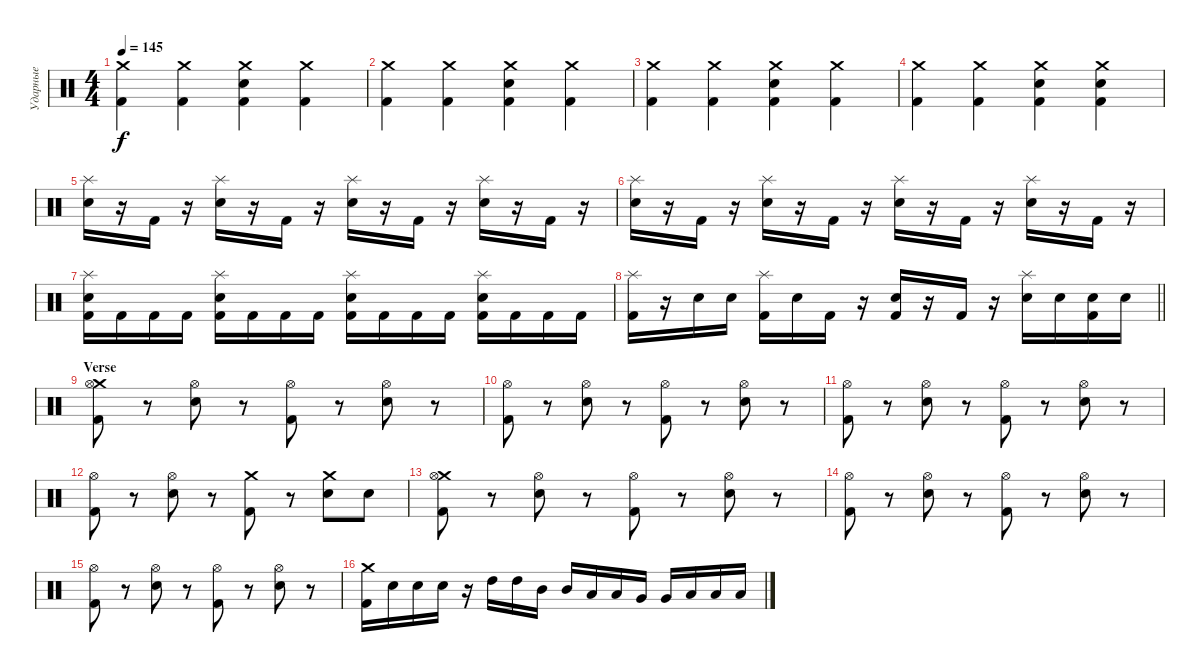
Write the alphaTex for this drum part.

\track ("Ударные" "Ударные") {instrument percussion}
\staff {score}
\articulation defaults
\ts (4 4)
\tempo 145
\clef neutral
\ks c
("Crash medium (hit)" "Kick (hit) 2").4{dy f} ("Crash medium (hit)" "Kick (hit) 2").4 ("Crash medium (hit)" "Electric Snare (hit)" "Kick (hit) 2").4 ("Crash medium (hit)" "Kick (hit) 2").4 |
("Crash medium (hit)" "Kick (hit) 2").4 ("Crash medium (hit)" "Kick (hit) 2").4 ("Crash medium (hit)" "Electric Snare (hit)" "Kick (hit) 2").4 ("Crash medium (hit)" "Kick (hit) 2").4 |
("Crash medium (hit)" "Kick (hit) 2").4 ("Crash medium (hit)" "Kick (hit) 2").4 ("Crash medium (hit)" "Electric Snare (hit)" "Kick (hit) 2").4 ("Crash medium (hit)" "Kick (hit) 2").4 |
("Crash medium (hit)" "Kick (hit) 2").4 ("Crash medium (hit)" "Kick (hit) 2").4 ("Crash medium (hit)" "Electric Snare (hit)" "Kick (hit) 2").4 ("Crash medium (hit)" "Electric Snare (hit)" "Kick (hit) 2").4 |
("Splash (hit)" "Electric Snare (hit)").16 r.16 "Kick (hit) 2".16 r.16 ("Splash (hit)" "Electric Snare (hit)").16 r.16 "Kick (hit) 2".16 r.16 ("Splash (hit)" "Electric Snare (hit)").16 r.16 "Kick (hit) 2".16 r.16 ("Splash (hit)" "Electric Snare (hit)").16 r.16 "Kick (hit) 2".16 r.16 |
("Splash (hit)" "Electric Snare (hit)").16 r.16 "Kick (hit) 2".16 r.16 ("Splash (hit)" "Electric Snare (hit)").16 r.16 "Kick (hit) 2".16 r.16 ("Splash (hit)" "Electric Snare (hit)").16 r.16 "Kick (hit) 2".16 r.16 ("Splash (hit)" "Electric Snare (hit)").16 r.16 "Kick (hit) 2".16 r.16 |
("Splash (hit)" "Electric Snare (hit)" "Kick (hit) 2").16 "Kick (hit) 2".16 "Kick (hit) 2".16 "Kick (hit) 2".16 ("Splash (hit)" "Electric Snare (hit)" "Kick (hit) 2").16 "Kick (hit) 2".16 "Kick (hit) 2".16 "Kick (hit) 2".16 ("Splash (hit)" "Electric Snare (hit)" "Kick (hit) 2").16 "Kick (hit) 2".16 "Kick (hit) 2".16 "Kick (hit) 2".16 ("Splash (hit)" "Electric Snare (hit)" "Kick (hit) 2").16 "Kick (hit) 2".16 "Kick (hit) 2".16 "Kick (hit) 2".16 |
\barLineRight lightlight
("Splash (hit)" "Kick (hit) 2").16 r.16 "Electric Snare (hit)".16 "Electric Snare (hit)".16 ("Splash (hit)" "Kick (hit) 2").16 "Electric Snare (hit)".16 "Kick (hit) 2".16 r.16 ("Electric Snare (hit)" "Kick (hit) 2").16 r.16 "Kick (hit) 2".16 r.16 ("Splash (hit)" "Electric Snare (hit)").16 "Electric Snare (hit)".16 ("Electric Snare (hit)" "Kick (hit) 2").16 "Electric Snare (hit)".16 |
\section ("" "Verse")
("Crash medium (hit)" "Hi-Hat (open)" "Kick (hit) 2").8 r.8 ("Hi-Hat (open)" "Electric Snare (hit)").8 r.8 ("Hi-Hat (open)" "Kick (hit) 2").8 r.8 ("Hi-Hat (open)" "Electric Snare (hit)").8 r.8 |
("Hi-Hat (open)" "Kick (hit) 2").8 r.8 ("Hi-Hat (open)" "Electric Snare (hit)").8 r.8 ("Hi-Hat (open)" "Kick (hit) 2").8 r.8 ("Hi-Hat (open)" "Electric Snare (hit)").8 r.8 |
("Hi-Hat (open)" "Kick (hit) 2").8 r.8 ("Hi-Hat (open)" "Electric Snare (hit)").8 r.8 ("Hi-Hat (open)" "Kick (hit) 2").8 r.8 ("Hi-Hat (open)" "Electric Snare (hit)").8 r.8 |
("Hi-Hat (open)" "Kick (hit) 2").8 r.8 ("Hi-Hat (open)" "Electric Snare (hit)").8 r.8 ("Crash medium (hit)" "Kick (hit) 2").8 r.8 ("Crash medium (hit)" "Electric Snare (hit)").8 "Electric Snare (hit)".8 |
("Crash medium (hit)" "Hi-Hat (open)" "Kick (hit) 2").8 r.8 ("Hi-Hat (open)" "Electric Snare (hit)").8 r.8 ("Hi-Hat (open)" "Kick (hit) 2").8 r.8 ("Hi-Hat (open)" "Electric Snare (hit)").8 r.8 |
("Hi-Hat (open)" "Kick (hit) 2").8 r.8 ("Hi-Hat (open)" "Electric Snare (hit)").8 r.8 ("Hi-Hat (open)" "Kick (hit) 2").8 r.8 ("Hi-Hat (open)" "Electric Snare (hit)").8 r.8 |
("Hi-Hat (open)" "Kick (hit) 2").8 r.8 ("Hi-Hat (open)" "Electric Snare (hit)").8 r.8 ("Hi-Hat (open)" "Kick (hit) 2").8 r.8 ("Hi-Hat (open)" "Electric Snare (hit)").8 r.8 |
("Crash medium (hit)" "Kick (hit) 2").16 "Electric Snare (hit)".16 "Electric Snare (hit)".16 "Electric Snare (hit)".16 r.16 "High Tom (hit)".16 "High Tom (hit)".16 "Mid Tom (hit)".16 "Mid Tom (hit)".16 "Low Tom (hit)".16 "Low Tom (hit)".16 "Very Low Tom (hit)".16 "Very Low Tom (hit)".16 "Low Floor Tom (hit)".16 "Low Floor Tom (hit)".16 "Low Floor Tom (hit)".16
